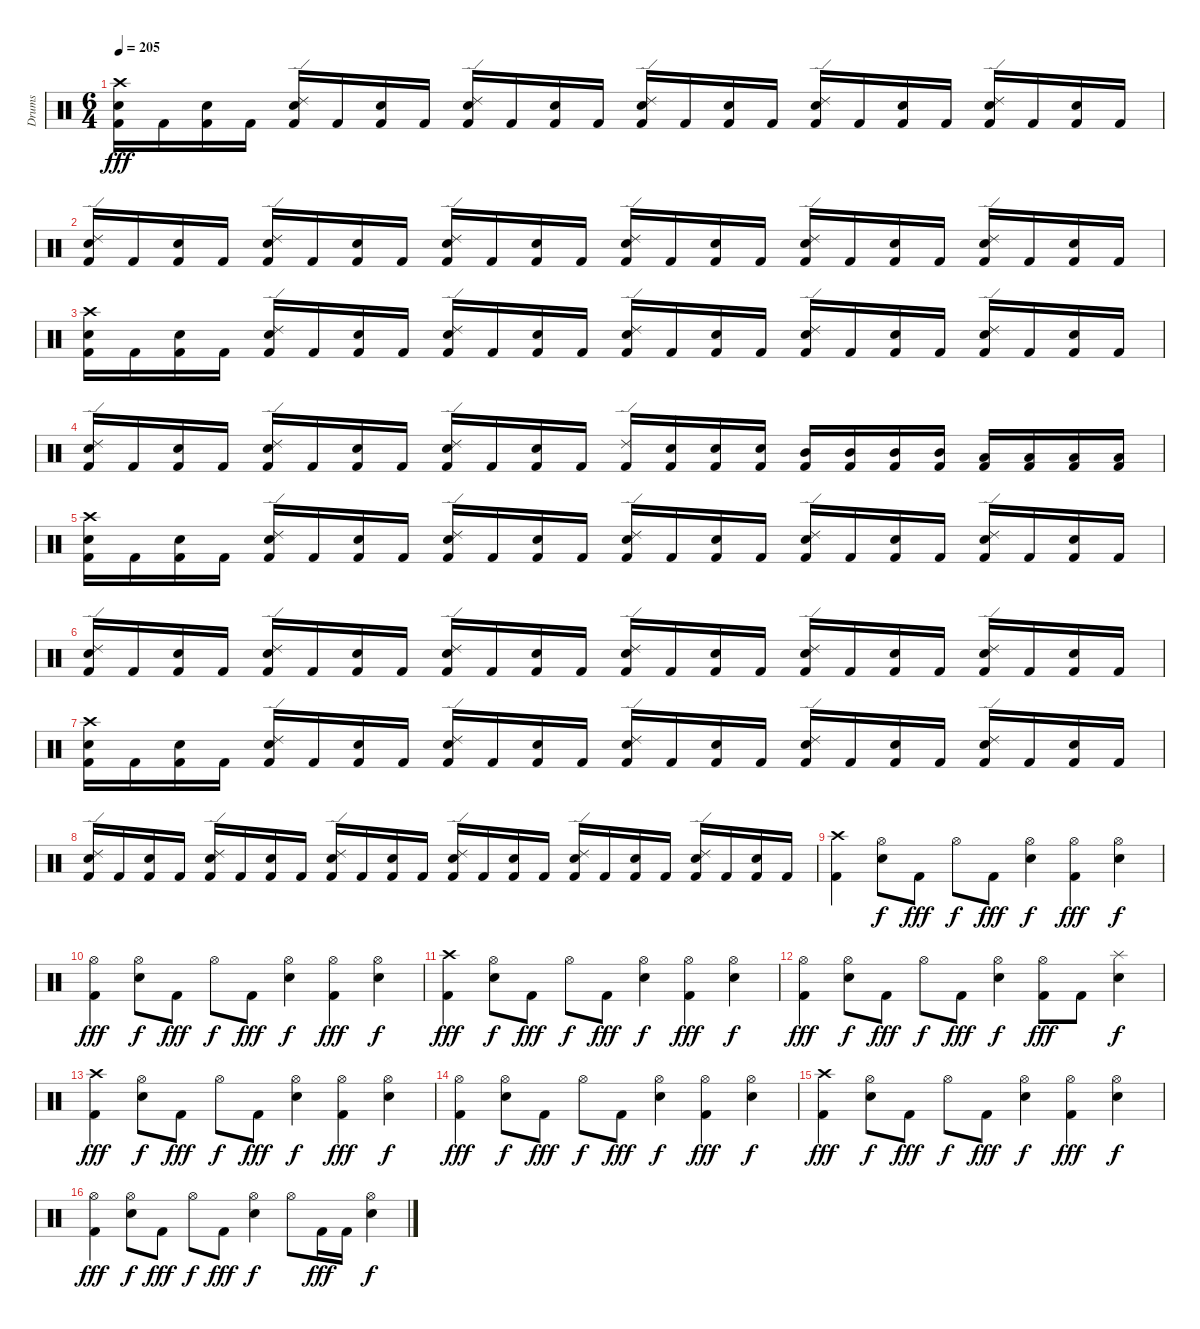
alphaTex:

\track ("Drums" "Drums") {instrument percussion}
\staff {score}
\articulation defaults
\ts (6 4)
\tempo 205
\clef neutral
\ks c
("Crash high (hit)" "Snare (hit) 2" "Kick (hit) 2").16{dy fff} "Kick (hit) 2".16 ("Snare (hit) 2" "Kick (hit) 2").16 "Kick (hit) 2".16 ("Ride (edge) 2" "Snare (hit) 2" "Kick (hit) 2").16 "Kick (hit) 2".16 ("Snare (hit) 2" "Kick (hit) 2").16 "Kick (hit) 2".16 ("Ride (edge) 2" "Snare (hit) 2" "Kick (hit) 2").16 "Kick (hit) 2".16 ("Snare (hit) 2" "Kick (hit) 2").16 "Kick (hit) 2".16 ("Ride (edge) 2" "Snare (hit) 2" "Kick (hit) 2").16 "Kick (hit) 2".16 ("Snare (hit) 2" "Kick (hit) 2").16 "Kick (hit) 2".16 ("Ride (edge) 2" "Snare (hit) 2" "Kick (hit) 2").16 "Kick (hit) 2".16 ("Snare (hit) 2" "Kick (hit) 2").16 "Kick (hit) 2".16 ("Ride (edge) 2" "Snare (hit) 2" "Kick (hit) 2").16 "Kick (hit) 2".16 ("Snare (hit) 2" "Kick (hit) 2").16 "Kick (hit) 2".16 |
("Ride (edge) 2" "Snare (hit) 2" "Kick (hit) 2").16 "Kick (hit) 2".16 ("Snare (hit) 2" "Kick (hit) 2").16 "Kick (hit) 2".16 ("Ride (edge) 2" "Snare (hit) 2" "Kick (hit) 2").16 "Kick (hit) 2".16 ("Snare (hit) 2" "Kick (hit) 2").16 "Kick (hit) 2".16 ("Ride (edge) 2" "Snare (hit) 2" "Kick (hit) 2").16 "Kick (hit) 2".16 ("Snare (hit) 2" "Kick (hit) 2").16 "Kick (hit) 2".16 ("Ride (edge) 2" "Snare (hit) 2" "Kick (hit) 2").16 "Kick (hit) 2".16 ("Snare (hit) 2" "Kick (hit) 2").16 "Kick (hit) 2".16 ("Ride (edge) 2" "Snare (hit) 2" "Kick (hit) 2").16 "Kick (hit) 2".16 ("Snare (hit) 2" "Kick (hit) 2").16 "Kick (hit) 2".16 ("Ride (edge) 2" "Snare (hit) 2" "Kick (hit) 2").16 "Kick (hit) 2".16 ("Snare (hit) 2" "Kick (hit) 2").16 "Kick (hit) 2".16 |
("Crash high (hit)" "Snare (hit) 2" "Kick (hit) 2").16 "Kick (hit) 2".16 ("Snare (hit) 2" "Kick (hit) 2").16 "Kick (hit) 2".16 ("Ride (edge) 2" "Snare (hit) 2" "Kick (hit) 2").16 "Kick (hit) 2".16 ("Snare (hit) 2" "Kick (hit) 2").16 "Kick (hit) 2".16 ("Ride (edge) 2" "Snare (hit) 2" "Kick (hit) 2").16 "Kick (hit) 2".16 ("Snare (hit) 2" "Kick (hit) 2").16 "Kick (hit) 2".16 ("Ride (edge) 2" "Snare (hit) 2" "Kick (hit) 2").16 "Kick (hit) 2".16 ("Snare (hit) 2" "Kick (hit) 2").16 "Kick (hit) 2".16 ("Ride (edge) 2" "Snare (hit) 2" "Kick (hit) 2").16 "Kick (hit) 2".16 ("Snare (hit) 2" "Kick (hit) 2").16 "Kick (hit) 2".16 ("Ride (edge) 2" "Snare (hit) 2" "Kick (hit) 2").16 "Kick (hit) 2".16 ("Snare (hit) 2" "Kick (hit) 2").16 "Kick (hit) 2".16 |
("Ride (edge) 2" "Snare (hit) 2" "Kick (hit) 2").16 "Kick (hit) 2".16 ("Snare (hit) 2" "Kick (hit) 2").16 "Kick (hit) 2".16 ("Ride (edge) 2" "Snare (hit) 2" "Kick (hit) 2").16 "Kick (hit) 2".16 ("Snare (hit) 2" "Kick (hit) 2").16 "Kick (hit) 2".16 ("Ride (edge) 2" "Snare (hit) 2" "Kick (hit) 2").16 "Kick (hit) 2".16 ("Snare (hit) 2" "Kick (hit) 2").16 "Kick (hit) 2".16 ("Ride (edge) 2" "Kick (hit) 2").16 ("Snare (hit) 2" "Kick (hit) 2").16 ("Snare (hit) 2" "Kick (hit) 2").16 ("Snare (hit) 2" "Kick (hit) 2").16 ("Mid Tom (hit)" "Kick (hit) 2").16 ("Mid Tom (hit)" "Kick (hit) 2").16 ("Mid Tom (hit)" "Kick (hit) 2").16 ("Mid Tom (hit)" "Kick (hit) 2").16 ("Low Tom (hit)" "Kick (hit) 2").16 ("Low Tom (hit)" "Kick (hit) 2").16 ("Low Tom (hit)" "Kick (hit) 2").16 ("Low Tom (hit)" "Kick (hit) 2").16 |
("Crash high (hit)" "Snare (hit) 2" "Kick (hit) 2").16 "Kick (hit) 2".16 ("Snare (hit) 2" "Kick (hit) 2").16 "Kick (hit) 2".16 ("Ride (edge) 2" "Snare (hit) 2" "Kick (hit) 2").16 "Kick (hit) 2".16 ("Snare (hit) 2" "Kick (hit) 2").16 "Kick (hit) 2".16 ("Ride (edge) 2" "Snare (hit) 2" "Kick (hit) 2").16 "Kick (hit) 2".16 ("Snare (hit) 2" "Kick (hit) 2").16 "Kick (hit) 2".16 ("Ride (edge) 2" "Snare (hit) 2" "Kick (hit) 2").16 "Kick (hit) 2".16 ("Snare (hit) 2" "Kick (hit) 2").16 "Kick (hit) 2".16 ("Ride (edge) 2" "Snare (hit) 2" "Kick (hit) 2").16 "Kick (hit) 2".16 ("Snare (hit) 2" "Kick (hit) 2").16 "Kick (hit) 2".16 ("Ride (edge) 2" "Snare (hit) 2" "Kick (hit) 2").16 "Kick (hit) 2".16 ("Snare (hit) 2" "Kick (hit) 2").16 "Kick (hit) 2".16 |
("Ride (edge) 2" "Snare (hit) 2" "Kick (hit) 2").16 "Kick (hit) 2".16 ("Snare (hit) 2" "Kick (hit) 2").16 "Kick (hit) 2".16 ("Ride (edge) 2" "Snare (hit) 2" "Kick (hit) 2").16 "Kick (hit) 2".16 ("Snare (hit) 2" "Kick (hit) 2").16 "Kick (hit) 2".16 ("Ride (edge) 2" "Snare (hit) 2" "Kick (hit) 2").16 "Kick (hit) 2".16 ("Snare (hit) 2" "Kick (hit) 2").16 "Kick (hit) 2".16 ("Ride (edge) 2" "Snare (hit) 2" "Kick (hit) 2").16 "Kick (hit) 2".16 ("Snare (hit) 2" "Kick (hit) 2").16 "Kick (hit) 2".16 ("Ride (edge) 2" "Snare (hit) 2" "Kick (hit) 2").16 "Kick (hit) 2".16 ("Snare (hit) 2" "Kick (hit) 2").16 "Kick (hit) 2".16 ("Ride (edge) 2" "Snare (hit) 2" "Kick (hit) 2").16 "Kick (hit) 2".16 ("Snare (hit) 2" "Kick (hit) 2").16 "Kick (hit) 2".16 |
("Crash high (hit)" "Snare (hit) 2" "Kick (hit) 2").16 "Kick (hit) 2".16 ("Snare (hit) 2" "Kick (hit) 2").16 "Kick (hit) 2".16 ("Ride (edge) 2" "Snare (hit) 2" "Kick (hit) 2").16 "Kick (hit) 2".16 ("Snare (hit) 2" "Kick (hit) 2").16 "Kick (hit) 2".16 ("Ride (edge) 2" "Snare (hit) 2" "Kick (hit) 2").16 "Kick (hit) 2".16 ("Snare (hit) 2" "Kick (hit) 2").16 "Kick (hit) 2".16 ("Ride (edge) 2" "Snare (hit) 2" "Kick (hit) 2").16 "Kick (hit) 2".16 ("Snare (hit) 2" "Kick (hit) 2").16 "Kick (hit) 2".16 ("Ride (edge) 2" "Snare (hit) 2" "Kick (hit) 2").16 "Kick (hit) 2".16 ("Snare (hit) 2" "Kick (hit) 2").16 "Kick (hit) 2".16 ("Ride (edge) 2" "Snare (hit) 2" "Kick (hit) 2").16 "Kick (hit) 2".16 ("Snare (hit) 2" "Kick (hit) 2").16 "Kick (hit) 2".16 |
("Ride (edge) 2" "Snare (hit) 2" "Kick (hit) 2").16 "Kick (hit) 2".16 ("Snare (hit) 2" "Kick (hit) 2").16 "Kick (hit) 2".16 ("Ride (edge) 2" "Snare (hit) 2" "Kick (hit) 2").16 "Kick (hit) 2".16 ("Snare (hit) 2" "Kick (hit) 2").16 "Kick (hit) 2".16 ("Ride (edge) 2" "Snare (hit) 2" "Kick (hit) 2").16 "Kick (hit) 2".16 ("Snare (hit) 2" "Kick (hit) 2").16 "Kick (hit) 2".16 ("Ride (edge) 2" "Snare (hit) 2" "Kick (hit) 2").16 "Kick (hit) 2".16 ("Snare (hit) 2" "Kick (hit) 2").16 "Kick (hit) 2".16 ("Ride (edge) 2" "Snare (hit) 2" "Kick (hit) 2").16 "Kick (hit) 2".16 ("Snare (hit) 2" "Kick (hit) 2").16 "Kick (hit) 2".16 ("Ride (edge) 2" "Snare (hit) 2" "Kick (hit) 2").16 "Kick (hit) 2".16 ("Snare (hit) 2" "Kick (hit) 2").16 "Kick (hit) 2".16 |
("Crash high (hit)" "Kick (hit) 2").4 ("Hi-Hat (open)" "Snare (hit) 2").8{dy f} "Kick (hit) 2".8{dy fff} "Hi-Hat (open)".8{dy f} "Kick (hit) 2".8{dy fff} ("Hi-Hat (open)" "Snare (hit) 2").4{dy f} ("Hi-Hat (open)" "Kick (hit) 2").4{dy fff} ("Hi-Hat (open)" "Snare (hit) 2").4{dy f} |
("Hi-Hat (open)" "Kick (hit) 2").4{dy fff} ("Hi-Hat (open)" "Snare (hit) 2").8{dy f} "Kick (hit) 2".8{dy fff} "Hi-Hat (open)".8{dy f} "Kick (hit) 2".8{dy fff} ("Hi-Hat (open)" "Snare (hit) 2").4{dy f} ("Hi-Hat (open)" "Kick (hit) 2").4{dy fff} ("Hi-Hat (open)" "Snare (hit) 2").4{dy f} |
("Crash high (hit)" "Kick (hit) 2").4{dy fff} ("Hi-Hat (open)" "Snare (hit) 2").8{dy f} "Kick (hit) 2".8{dy fff} "Hi-Hat (open)".8{dy f} "Kick (hit) 2".8{dy fff} ("Hi-Hat (open)" "Snare (hit) 2").4{dy f} ("Hi-Hat (open)" "Kick (hit) 2").4{dy fff} ("Hi-Hat (open)" "Snare (hit) 2").4{dy f} |
("Hi-Hat (open)" "Kick (hit) 2").4{dy fff} ("Hi-Hat (open)" "Snare (hit) 2").8{dy f} "Kick (hit) 2".8{dy fff} "Hi-Hat (open)".8{dy f} "Kick (hit) 2".8{dy fff} ("Hi-Hat (open)" "Snare (hit) 2").4{dy f} ("Hi-Hat (open)" "Kick (hit) 2").8{dy fff} "Kick (hit) 2".8 ("Splash (hit)" "Snare (hit) 2").4{dy f} |
("Crash high (hit)" "Kick (hit) 2").4{dy fff} ("Hi-Hat (open)" "Snare (hit) 2").8{dy f} "Kick (hit) 2".8{dy fff} "Hi-Hat (open)".8{dy f} "Kick (hit) 2".8{dy fff} ("Hi-Hat (open)" "Snare (hit) 2").4{dy f} ("Hi-Hat (open)" "Kick (hit) 2").4{dy fff} ("Hi-Hat (open)" "Snare (hit) 2").4{dy f} |
("Hi-Hat (open)" "Kick (hit) 2").4{dy fff} ("Hi-Hat (open)" "Snare (hit) 2").8{dy f} "Kick (hit) 2".8{dy fff} "Hi-Hat (open)".8{dy f} "Kick (hit) 2".8{dy fff} ("Hi-Hat (open)" "Snare (hit) 2").4{dy f} ("Hi-Hat (open)" "Kick (hit) 2").4{dy fff} ("Hi-Hat (open)" "Snare (hit) 2").4{dy f} |
("Crash high (hit)" "Kick (hit) 2").4{dy fff} ("Hi-Hat (open)" "Snare (hit) 2").8{dy f} "Kick (hit) 2".8{dy fff} "Hi-Hat (open)".8{dy f} "Kick (hit) 2".8{dy fff} ("Hi-Hat (open)" "Snare (hit) 2").4{dy f} ("Hi-Hat (open)" "Kick (hit) 2").4{dy fff} ("Hi-Hat (open)" "Snare (hit) 2").4{dy f} |
("Hi-Hat (open)" "Kick (hit) 2").4{dy fff} ("Hi-Hat (open)" "Snare (hit) 2").8{dy f} "Kick (hit) 2".8{dy fff} "Hi-Hat (open)".8{dy f} "Kick (hit) 2".8{dy fff} ("Hi-Hat (open)" "Snare (hit) 2").4{dy f} "Hi-Hat (open)".8 "Kick (hit) 2".16{dy fff} "Kick (hit) 2".16 ("Hi-Hat (open)" "Snare (hit) 2").4{dy f}
